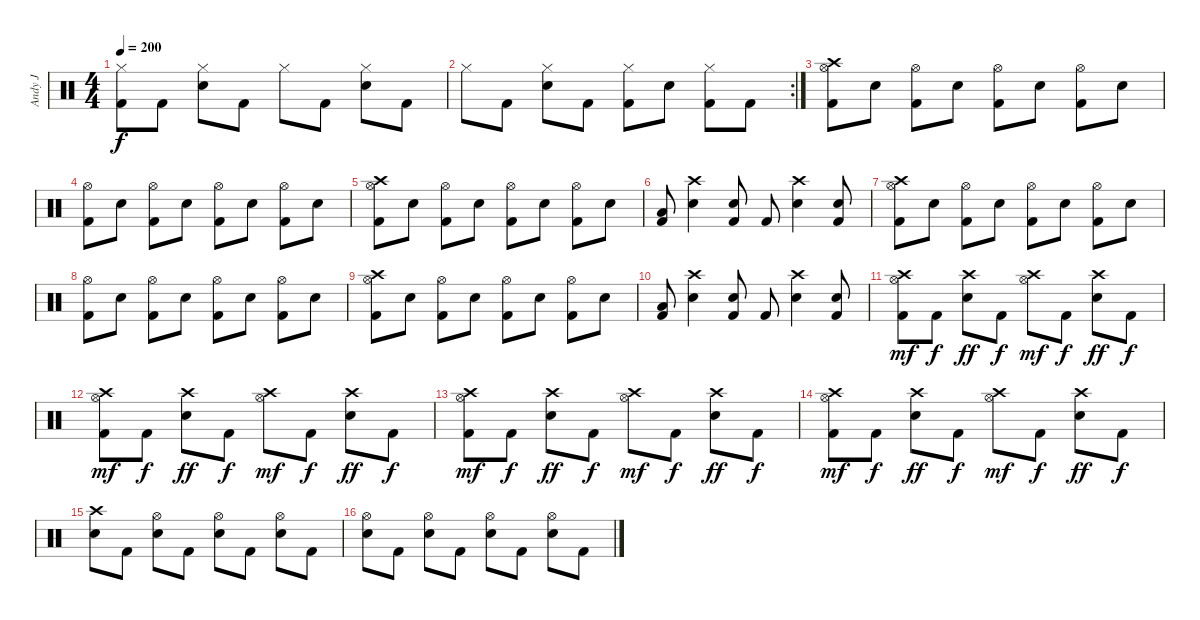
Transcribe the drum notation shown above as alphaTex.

\track ("Andy J" "Andy J") {instrument percussion}
\staff {score}
\articulation defaults
\ts (4 4)
\tempo 200
\clef neutral
\ks c
("Hi-Hat (closed)" "Kick (hit) 2").8{dy f} "Kick (hit) 2".8 ("Hi-Hat (closed)" "Electric Snare (hit)").8 "Kick (hit) 2".8 "Hi-Hat (closed)".8 "Kick (hit) 2".8 ("Hi-Hat (closed)" "Electric Snare (hit)").8 "Kick (hit) 2".8 |
\rc 2 "Hi-Hat (closed)".8 "Kick (hit) 2".8
("Hi-Hat (closed)" "Electric Snare (hit)").8 "Kick (hit) 2".8 ("Hi-Hat (closed)" "Kick (hit) 2").8 "Electric Snare (hit)".8 ("Hi-Hat (closed)" "Kick (hit) 2").8 "Kick (hit) 2".8 |
("Crash high (hit)" "Hi-Hat (open)" "Kick (hit) 2").8 "Electric Snare (hit)".8 ("Hi-Hat (open)" "Kick (hit) 2").8 "Electric Snare (hit)".8 ("Hi-Hat (open)" "Kick (hit) 2").8 "Electric Snare (hit)".8 ("Hi-Hat (open)" "Kick (hit) 2").8 "Electric Snare (hit)".8 |
("Hi-Hat (open)" "Kick (hit) 2").8 "Electric Snare (hit)".8 ("Hi-Hat (open)" "Kick (hit) 2").8 "Electric Snare (hit)".8 ("Hi-Hat (open)" "Kick (hit) 2").8 "Electric Snare (hit)".8 ("Hi-Hat (open)" "Kick (hit) 2").8 "Electric Snare (hit)".8 |
("Crash high (hit)" "Hi-Hat (open)" "Kick (hit) 2").8 "Electric Snare (hit)".8 ("Hi-Hat (open)" "Kick (hit) 2").8 "Electric Snare (hit)".8 ("Hi-Hat (open)" "Kick (hit) 2").8 "Electric Snare (hit)".8 ("Hi-Hat (open)" "Kick (hit) 2").8 "Electric Snare (hit)".8 |
("Low Tom (hit)" "Kick (hit) 2").8 ("Crash high (hit)" "Electric Snare (hit)").4 ("Electric Snare (hit)" "Kick (hit) 2").8 "Kick (hit) 2".8 ("Crash high (hit)" "Electric Snare (hit)").4 ("Electric Snare (hit)" "Kick (hit) 2").8 |
("Crash high (hit)" "Hi-Hat (open)" "Kick (hit) 2").8 "Electric Snare (hit)".8 ("Hi-Hat (open)" "Kick (hit) 2").8 "Electric Snare (hit)".8 ("Hi-Hat (open)" "Kick (hit) 2").8 "Electric Snare (hit)".8 ("Hi-Hat (open)" "Kick (hit) 2").8 "Electric Snare (hit)".8 |
("Hi-Hat (open)" "Kick (hit) 2").8 "Electric Snare (hit)".8 ("Hi-Hat (open)" "Kick (hit) 2").8 "Electric Snare (hit)".8 ("Hi-Hat (open)" "Kick (hit) 2").8 "Electric Snare (hit)".8 ("Hi-Hat (open)" "Kick (hit) 2").8 "Electric Snare (hit)".8 |
("Crash high (hit)" "Hi-Hat (open)" "Kick (hit) 2").8 "Electric Snare (hit)".8 ("Hi-Hat (open)" "Kick (hit) 2").8 "Electric Snare (hit)".8 ("Hi-Hat (open)" "Kick (hit) 2").8 "Electric Snare (hit)".8 ("Hi-Hat (open)" "Kick (hit) 2").8 "Electric Snare (hit)".8 |
("Low Tom (hit)" "Kick (hit) 2").8 ("Crash high (hit)" "Electric Snare (hit)").4 ("Electric Snare (hit)" "Kick (hit) 2").8 "Kick (hit) 2".8 ("Crash high (hit)" "Electric Snare (hit)").4 ("Electric Snare (hit)" "Kick (hit) 2").8 |
("Crash high (hit)" "Hi-Hat (open)" "Kick (hit) 2").8{dy mf} "Kick (hit) 2".8{dy f} ("Crash high (hit)" "Electric Snare (hit)").8{dy ff} "Kick (hit) 2".8{dy f} ("Crash high (hit)" "Hi-Hat (open)").8{dy mf} "Kick (hit) 2".8{dy f} ("Crash high (hit)" "Electric Snare (hit)").8{dy ff} "Kick (hit) 2".8{dy f} |
("Crash high (hit)" "Hi-Hat (open)" "Kick (hit) 2").8{dy mf} "Kick (hit) 2".8{dy f} ("Crash high (hit)" "Electric Snare (hit)").8{dy ff} "Kick (hit) 2".8{dy f} ("Crash high (hit)" "Hi-Hat (open)").8{dy mf} "Kick (hit) 2".8{dy f} ("Crash high (hit)" "Electric Snare (hit)").8{dy ff} "Kick (hit) 2".8{dy f} |
("Crash high (hit)" "Hi-Hat (open)" "Kick (hit) 2").8{dy mf} "Kick (hit) 2".8{dy f} ("Crash high (hit)" "Electric Snare (hit)").8{dy ff} "Kick (hit) 2".8{dy f} ("Crash high (hit)" "Hi-Hat (open)").8{dy mf} "Kick (hit) 2".8{dy f} ("Crash high (hit)" "Electric Snare (hit)").8{dy ff} "Kick (hit) 2".8{dy f} |
("Crash high (hit)" "Hi-Hat (open)" "Kick (hit) 2").8{dy mf} "Kick (hit) 2".8{dy f} ("Crash high (hit)" "Electric Snare (hit)").8{dy ff} "Kick (hit) 2".8{dy f} ("Crash high (hit)" "Hi-Hat (open)").8{dy mf} "Kick (hit) 2".8{dy f} ("Crash high (hit)" "Electric Snare (hit)").8{dy ff} "Kick (hit) 2".8{dy f} |
("Crash high (hit)" "Electric Snare (hit)").8 "Kick (hit) 2".8 ("Hi-Hat (open)" "Electric Snare (hit)").8 "Kick (hit) 2".8 ("Hi-Hat (open)" "Electric Snare (hit)").8 "Kick (hit) 2".8 ("Hi-Hat (open)" "Electric Snare (hit)").8 "Kick (hit) 2".8 |
("Hi-Hat (open)" "Electric Snare (hit)").8 "Kick (hit) 2".8 ("Hi-Hat (open)" "Electric Snare (hit)").8 "Kick (hit) 2".8 ("Hi-Hat (open)" "Electric Snare (hit)").8 "Kick (hit) 2".8 ("Hi-Hat (open)" "Electric Snare (hit)").8 "Kick (hit) 2".8
